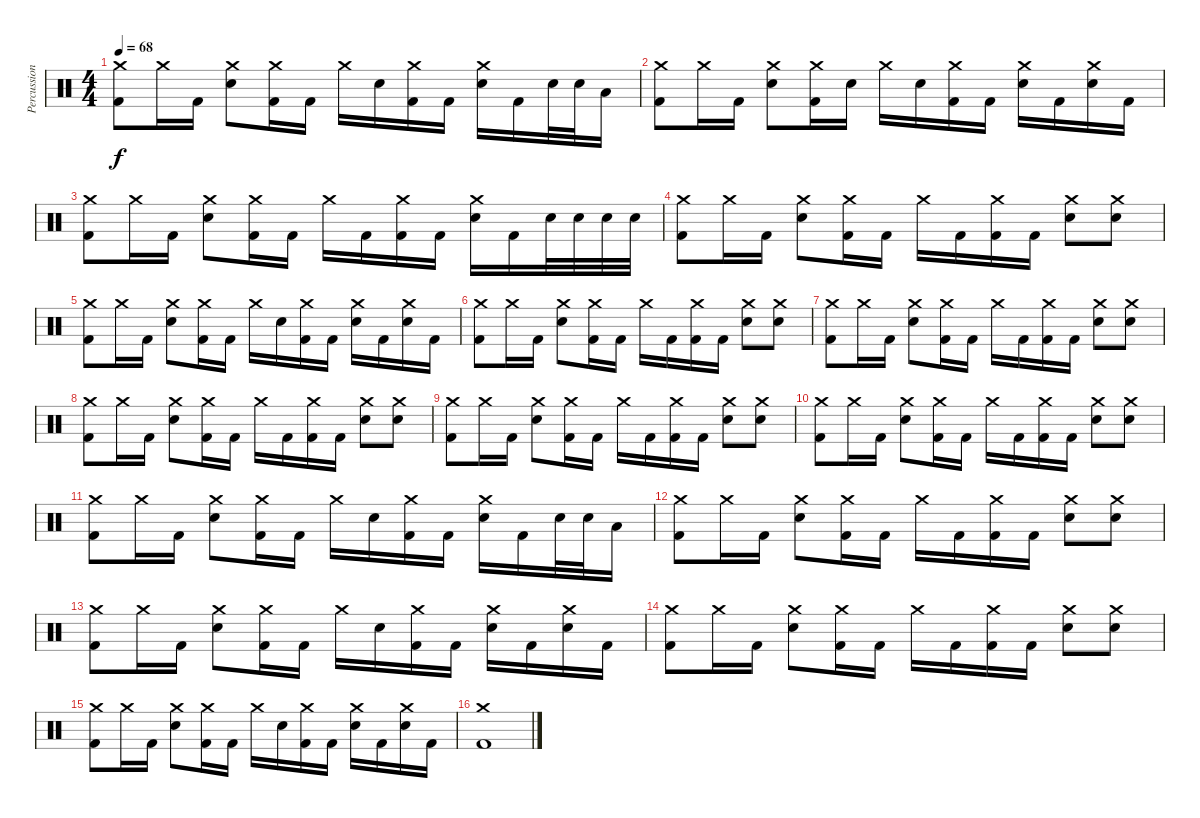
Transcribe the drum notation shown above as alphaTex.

\track ("Percussion" "Percussion") {instrument percussion}
\staff {score}
\articulation defaults
\ts (4 4)
\tempo 68
\clef neutral
\ks c
("Crash medium (hit)" "Kick (hit) 2").8{dy f} "Crash medium (hit)".16 "Kick (hit) 2".16 ("Crash medium (hit)" "Electric Snare (hit)").8 ("Crash medium (hit)" "Kick (hit) 2").16 "Kick (hit) 2".16 "Crash medium (hit)".16 "Electric Snare (hit)".16 ("Crash medium (hit)" "Kick (hit) 2").16 "Kick (hit) 2".16 ("Crash medium (hit)" "Electric Snare (hit)").16 "Kick (hit) 2".16 "Electric Snare (hit)".32 "Electric Snare (hit)".32 "Low Tom (hit)".16 |
("Crash medium (hit)" "Kick (hit) 2").8 "Crash medium (hit)".16 "Kick (hit) 2".16 ("Crash medium (hit)" "Electric Snare (hit)").8 ("Crash medium (hit)" "Kick (hit) 2").16 "Electric Snare (hit)".16 "Crash medium (hit)".16 "Electric Snare (hit)".16 ("Crash medium (hit)" "Kick (hit) 2").16 "Kick (hit) 2".16 ("Crash medium (hit)" "Electric Snare (hit)").16 "Kick (hit) 2".16 ("Crash medium (hit)" "Electric Snare (hit)").16 "Kick (hit) 2".16 |
("Crash medium (hit)" "Kick (hit) 2").8 "Crash medium (hit)".16 "Kick (hit) 2".16 ("Crash medium (hit)" "Electric Snare (hit)").8 ("Crash medium (hit)" "Kick (hit) 2").16 "Kick (hit) 2".16 "Crash medium (hit)".16 "Kick (hit) 2".16 ("Crash medium (hit)" "Kick (hit) 2").16 "Kick (hit) 2".16 ("Crash medium (hit)" "Electric Snare (hit)").16 "Kick (hit) 2".16 "Electric Snare (hit)".32 "Electric Snare (hit)".32 "Electric Snare (hit)".32 "Electric Snare (hit)".32 |
("Crash medium (hit)" "Kick (hit) 2").8 "Crash medium (hit)".16 "Kick (hit) 2".16 ("Crash medium (hit)" "Electric Snare (hit)").8 ("Crash medium (hit)" "Kick (hit) 2").16 "Kick (hit) 2".16 "Crash medium (hit)".16 "Kick (hit) 2".16 ("Crash medium (hit)" "Kick (hit) 2").16 "Kick (hit) 2".16 ("Crash medium (hit)" "Electric Snare (hit)").8 ("Crash medium (hit)" "Electric Snare (hit)").8 |
("Crash medium (hit)" "Kick (hit) 2").8 "Crash medium (hit)".16 "Kick (hit) 2".16 ("Crash medium (hit)" "Electric Snare (hit)").8 ("Crash medium (hit)" "Kick (hit) 2").16 "Kick (hit) 2".16 "Crash medium (hit)".16 "Electric Snare (hit)".16 ("Crash medium (hit)" "Kick (hit) 2").16 "Kick (hit) 2".16 ("Crash medium (hit)" "Electric Snare (hit)").16 "Kick (hit) 2".16 ("Crash medium (hit)" "Electric Snare (hit)").16 "Kick (hit) 2".16 |
("Crash medium (hit)" "Kick (hit) 2").8 "Crash medium (hit)".16 "Kick (hit) 2".16 ("Crash medium (hit)" "Electric Snare (hit)").8 ("Crash medium (hit)" "Kick (hit) 2").16 "Kick (hit) 2".16 "Crash medium (hit)".16 "Kick (hit) 2".16 ("Crash medium (hit)" "Kick (hit) 2").16 "Kick (hit) 2".16 ("Crash medium (hit)" "Electric Snare (hit)").8 ("Crash medium (hit)" "Electric Snare (hit)").8 |
("Crash medium (hit)" "Kick (hit) 2").8 "Crash medium (hit)".16 "Kick (hit) 2".16 ("Crash medium (hit)" "Electric Snare (hit)").8 ("Crash medium (hit)" "Kick (hit) 2").16 "Kick (hit) 2".16 "Crash medium (hit)".16 "Kick (hit) 2".16 ("Crash medium (hit)" "Kick (hit) 2").16 "Kick (hit) 2".16 ("Crash medium (hit)" "Electric Snare (hit)").8 ("Crash medium (hit)" "Electric Snare (hit)").8 |
("Crash medium (hit)" "Kick (hit) 2").8 "Crash medium (hit)".16 "Kick (hit) 2".16 ("Crash medium (hit)" "Electric Snare (hit)").8 ("Crash medium (hit)" "Kick (hit) 2").16 "Kick (hit) 2".16 "Crash medium (hit)".16 "Kick (hit) 2".16 ("Crash medium (hit)" "Kick (hit) 2").16 "Kick (hit) 2".16 ("Crash medium (hit)" "Electric Snare (hit)").8 ("Crash medium (hit)" "Electric Snare (hit)").8 |
("Crash medium (hit)" "Kick (hit) 2").8 "Crash medium (hit)".16 "Kick (hit) 2".16 ("Crash medium (hit)" "Electric Snare (hit)").8 ("Crash medium (hit)" "Kick (hit) 2").16 "Kick (hit) 2".16 "Crash medium (hit)".16 "Kick (hit) 2".16 ("Crash medium (hit)" "Kick (hit) 2").16 "Kick (hit) 2".16 ("Crash medium (hit)" "Electric Snare (hit)").8 ("Crash medium (hit)" "Electric Snare (hit)").8 |
("Crash medium (hit)" "Kick (hit) 2").8 "Crash medium (hit)".16 "Kick (hit) 2".16 ("Crash medium (hit)" "Electric Snare (hit)").8 ("Crash medium (hit)" "Kick (hit) 2").16 "Kick (hit) 2".16 "Crash medium (hit)".16 "Kick (hit) 2".16 ("Crash medium (hit)" "Kick (hit) 2").16 "Kick (hit) 2".16 ("Crash medium (hit)" "Electric Snare (hit)").8 ("Crash medium (hit)" "Electric Snare (hit)").8 |
("Crash medium (hit)" "Kick (hit) 2").8 "Crash medium (hit)".16 "Kick (hit) 2".16 ("Crash medium (hit)" "Electric Snare (hit)").8 ("Crash medium (hit)" "Kick (hit) 2").16 "Kick (hit) 2".16 "Crash medium (hit)".16 "Electric Snare (hit)".16 ("Crash medium (hit)" "Kick (hit) 2").16 "Kick (hit) 2".16 ("Crash medium (hit)" "Electric Snare (hit)").16 "Kick (hit) 2".16 "Electric Snare (hit)".32 "Electric Snare (hit)".32 "Low Tom (hit)".16 |
("Crash medium (hit)" "Kick (hit) 2").8 "Crash medium (hit)".16 "Kick (hit) 2".16 ("Crash medium (hit)" "Electric Snare (hit)").8 ("Crash medium (hit)" "Kick (hit) 2").16 "Kick (hit) 2".16 "Crash medium (hit)".16 "Kick (hit) 2".16 ("Crash medium (hit)" "Kick (hit) 2").16 "Kick (hit) 2".16 ("Crash medium (hit)" "Electric Snare (hit)").8 ("Crash medium (hit)" "Electric Snare (hit)").8 |
("Crash medium (hit)" "Kick (hit) 2").8 "Crash medium (hit)".16 "Kick (hit) 2".16 ("Crash medium (hit)" "Electric Snare (hit)").8 ("Crash medium (hit)" "Kick (hit) 2").16 "Kick (hit) 2".16 "Crash medium (hit)".16 "Electric Snare (hit)".16 ("Crash medium (hit)" "Kick (hit) 2").16 "Kick (hit) 2".16 ("Crash medium (hit)" "Electric Snare (hit)").16 "Kick (hit) 2".16 ("Crash medium (hit)" "Electric Snare (hit)").16 "Kick (hit) 2".16 |
("Crash medium (hit)" "Kick (hit) 2").8 "Crash medium (hit)".16 "Kick (hit) 2".16 ("Crash medium (hit)" "Electric Snare (hit)").8 ("Crash medium (hit)" "Kick (hit) 2").16 "Kick (hit) 2".16 "Crash medium (hit)".16 "Kick (hit) 2".16 ("Crash medium (hit)" "Kick (hit) 2").16 "Kick (hit) 2".16 ("Crash medium (hit)" "Electric Snare (hit)").8 ("Crash medium (hit)" "Electric Snare (hit)").8 |
("Crash medium (hit)" "Kick (hit) 2").8 "Crash medium (hit)".16 "Kick (hit) 2".16 ("Crash medium (hit)" "Electric Snare (hit)").8 ("Crash medium (hit)" "Kick (hit) 2").16 "Kick (hit) 2".16 "Crash medium (hit)".16 "Electric Snare (hit)".16 ("Crash medium (hit)" "Kick (hit) 2").16 "Kick (hit) 2".16 ("Crash medium (hit)" "Electric Snare (hit)").16 "Kick (hit) 2".16 ("Crash medium (hit)" "Electric Snare (hit)").16 "Kick (hit) 2".16 |
("Crash medium (hit)" "Kick (hit) 2").1
